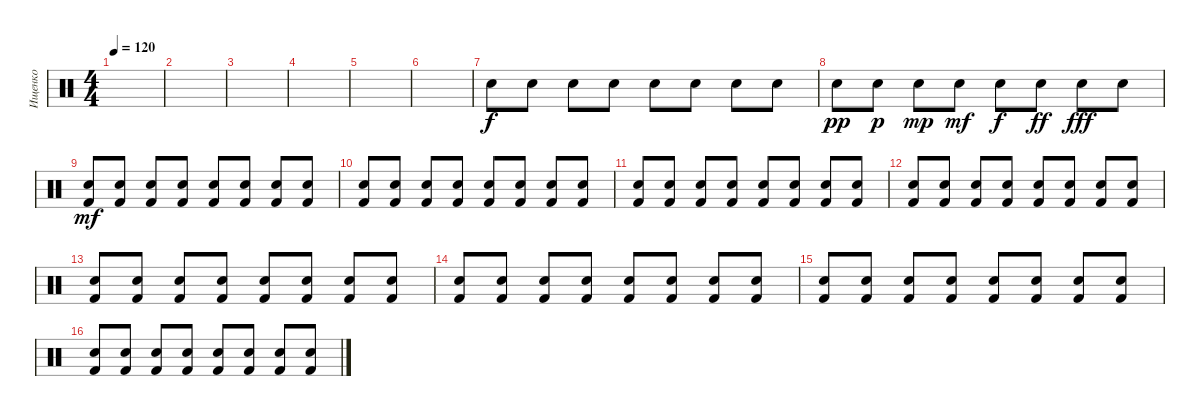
\track ("Ищенко" "Ищенко") {instrument percussion}
\staff {score}
\articulation defaults
\ts (4 4)
\tempo 120
\clef neutral
\ks c
|
|
|
|
|
|
"Electric Snare (hit)".8 "Electric Snare (hit)".8 "Electric Snare (hit)".8 "Electric Snare (hit)".8 "Electric Snare (hit)".8 "Electric Snare (hit)".8 "Electric Snare (hit)".8 "Electric Snare (hit)".8 |
"Electric Snare (hit)".8{dy pp} "Electric Snare (hit)".8{dy p} "Electric Snare (hit)".8{dy mp} "Electric Snare (hit)".8{dy mf} "Electric Snare (hit)".8{dy f} "Electric Snare (hit)".8{dy ff} "Electric Snare (hit)".8{dy fff} "Electric Snare (hit)".8 |
("Snare (hit) 2" "Kick (hit) 2").8{dy mf} ("Snare (hit) 2" "Kick (hit) 2").8 ("Snare (hit) 2" "Kick (hit) 2").8 ("Snare (hit) 2" "Kick (hit) 2").8 ("Snare (hit) 2" "Kick (hit) 2").8 ("Snare (hit) 2" "Kick (hit) 2").8 ("Snare (hit) 2" "Kick (hit) 2").8 ("Snare (hit) 2" "Kick (hit) 2").8 |
("Snare (hit) 2" "Kick (hit) 2").8 ("Snare (hit) 2" "Kick (hit) 2").8 ("Snare (hit) 2" "Kick (hit) 2").8 ("Snare (hit) 2" "Kick (hit) 2").8 ("Snare (hit) 2" "Kick (hit) 2").8 ("Snare (hit) 2" "Kick (hit) 2").8 ("Snare (hit) 2" "Kick (hit) 2").8 ("Snare (hit) 2" "Kick (hit) 2").8 |
("Snare (hit) 2" "Kick (hit) 2").8 ("Snare (hit) 2" "Kick (hit) 2").8 ("Snare (hit) 2" "Kick (hit) 2").8 ("Snare (hit) 2" "Kick (hit) 2").8 ("Snare (hit) 2" "Kick (hit) 2").8 ("Snare (hit) 2" "Kick (hit) 2").8 ("Snare (hit) 2" "Kick (hit) 2").8 ("Snare (hit) 2" "Kick (hit) 2").8 |
("Snare (hit) 2" "Kick (hit) 2").8 ("Snare (hit) 2" "Kick (hit) 2").8 ("Snare (hit) 2" "Kick (hit) 2").8 ("Snare (hit) 2" "Kick (hit) 2").8 ("Snare (hit) 2" "Kick (hit) 2").8 ("Snare (hit) 2" "Kick (hit) 2").8 ("Snare (hit) 2" "Kick (hit) 2").8 ("Snare (hit) 2" "Kick (hit) 2").8 |
("Snare (hit) 2" "Kick (hit) 2").8 ("Snare (hit) 2" "Kick (hit) 2").8 ("Snare (hit) 2" "Kick (hit) 2").8 ("Snare (hit) 2" "Kick (hit) 2").8 ("Snare (hit) 2" "Kick (hit) 2").8 ("Snare (hit) 2" "Kick (hit) 2").8 ("Snare (hit) 2" "Kick (hit) 2").8 ("Snare (hit) 2" "Kick (hit) 2").8 |
("Snare (hit) 2" "Kick (hit) 2").8 ("Snare (hit) 2" "Kick (hit) 2").8 ("Snare (hit) 2" "Kick (hit) 2").8 ("Snare (hit) 2" "Kick (hit) 2").8 ("Snare (hit) 2" "Kick (hit) 2").8 ("Snare (hit) 2" "Kick (hit) 2").8 ("Snare (hit) 2" "Kick (hit) 2").8 ("Snare (hit) 2" "Kick (hit) 2").8 |
("Snare (hit) 2" "Kick (hit) 2").8 ("Snare (hit) 2" "Kick (hit) 2").8 ("Snare (hit) 2" "Kick (hit) 2").8 ("Snare (hit) 2" "Kick (hit) 2").8 ("Snare (hit) 2" "Kick (hit) 2").8 ("Snare (hit) 2" "Kick (hit) 2").8 ("Snare (hit) 2" "Kick (hit) 2").8 ("Snare (hit) 2" "Kick (hit) 2").8 |
("Snare (hit) 2" "Kick (hit) 2").8 ("Snare (hit) 2" "Kick (hit) 2").8 ("Snare (hit) 2" "Kick (hit) 2").8 ("Snare (hit) 2" "Kick (hit) 2").8 ("Snare (hit) 2" "Kick (hit) 2").8 ("Snare (hit) 2" "Kick (hit) 2").8 ("Snare (hit) 2" "Kick (hit) 2").8 ("Snare (hit) 2" "Kick (hit) 2").8
